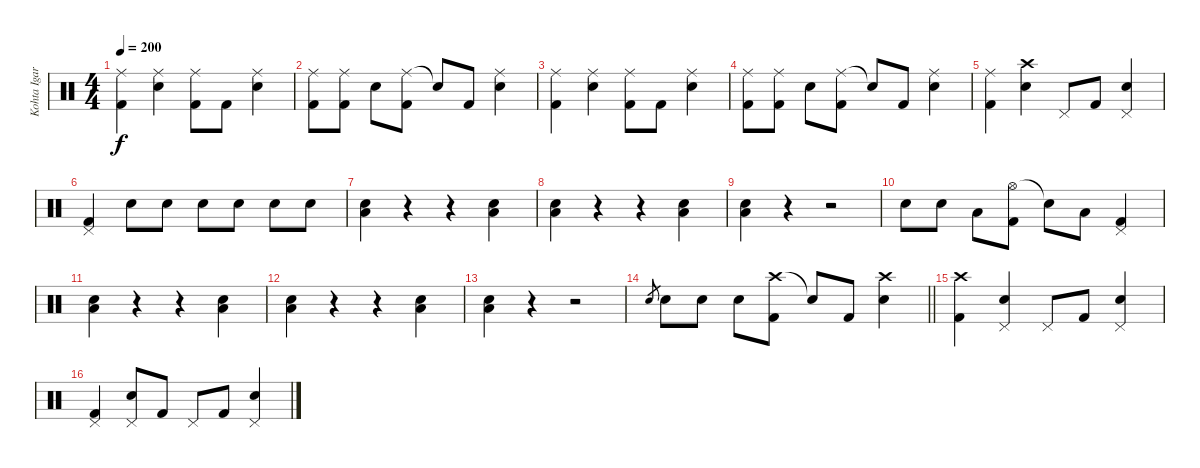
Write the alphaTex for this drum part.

\track ("Kohta Igarashi" "Kohta Igar") {instrument percussion}
\staff {score}
\articulation defaults
\ts (4 4)
\tempo 200
\clef neutral
\ks c
("Ride (middle)" "Kick (hit) 2").4{dy f} ("Ride (middle)" "Electric Snare (hit)").4 ("Ride (middle)" "Kick (hit) 2").8 "Kick (hit) 2".8 ("Ride (middle)" "Electric Snare (hit)").4 |
("Ride (middle)" "Kick (hit) 2").8 ("Ride (middle)" "Kick (hit) 2").8 "Electric Snare (hit)".8 ("Ride (middle)" "Kick (hit) 2").8 "Snare (hit)"{t}.8 "Kick (hit) 2".8 ("Ride (middle)" "Electric Snare (hit)").4 |
("Ride (middle)" "Kick (hit) 2").4 ("Ride (middle)" "Electric Snare (hit)").4 ("Ride (middle)" "Kick (hit) 2").8 "Kick (hit) 2".8 ("Ride (middle)" "Electric Snare (hit)").4 |
("Ride (middle)" "Kick (hit) 2").8 ("Ride (middle)" "Kick (hit) 2").8 "Electric Snare (hit)".8 ("Ride (middle)" "Kick (hit) 2").8 "Snare (hit)"{t}.8 "Kick (hit) 2".8 ("Ride (middle)" "Electric Snare (hit)").4 |
("Ride (middle)" "Kick (hit) 2").4 ("Crash high (hit)" "Electric Snare (hit)").4 "Pedal Hi-Hat (hit)".8 "Kick (hit) 2".8 ("Pedal Hi-Hat (hit)" "Electric Snare (hit)").4 |
("Pedal Hi-Hat (hit)" "Kick (hit) 2").4 "Electric Snare (hit)".8 "Electric Snare (hit)".8 "Electric Snare (hit)".8 "Electric Snare (hit)".8 "Electric Snare (hit)".8 "Electric Snare (hit)".8 |
("Electric Snare (hit)" "Low Floor Tom (hit)").4 r.4 r.4 ("Electric Snare (hit)" "Low Floor Tom (hit)").4 |
("Electric Snare (hit)" "Low Floor Tom (hit)").4 r.4 r.4 ("Electric Snare (hit)" "Low Floor Tom (hit)").4 |
("Electric Snare (hit)" "Low Floor Tom (hit)").4 r.4 r.2 |
"Electric Snare (hit)".8 "Electric Snare (hit)".8 "Low Tom (hit)".8 ("Hi-Hat (open)" "Kick (hit) 2").8 "Snare (hit)"{t}.8 "Low Tom (hit)".8 ("Pedal Hi-Hat (hit)" "Kick (hit) 2").4 |
("Electric Snare (hit)" "Low Floor Tom (hit)").4 r.4 r.4 ("Electric Snare (hit)" "Low Floor Tom (hit)").4 |
("Electric Snare (hit)" "Low Floor Tom (hit)").4 r.4 r.4 ("Electric Snare (hit)" "Low Floor Tom (hit)").4 |
("Electric Snare (hit)" "Low Floor Tom (hit)").4 r.4 r.2 |
\barLineRight lightlight "Electric Snare (hit)".8{gr} "Electric Snare (hit)".8 "Electric Snare (hit)".8 "Electric Snare (hit)".8
("Crash high (hit)" "Kick (hit) 2").8 "Snare (hit)"{t}.8 "Kick (hit) 2".8 ("Crash high (hit)" "Electric Snare (hit)").4 |
("Crash high (hit)" "Kick (hit) 2").4 ("Pedal Hi-Hat (hit)" "Electric Snare (hit)").4 "Pedal Hi-Hat (hit)".8 "Kick (hit) 2".8 ("Pedal Hi-Hat (hit)" "Electric Snare (hit)").4 |
("Pedal Hi-Hat (hit)" "Kick (hit) 2").4 ("Pedal Hi-Hat (hit)" "Electric Snare (hit)").8 "Kick (hit) 2".8 "Pedal Hi-Hat (hit)".8 "Kick (hit) 2".8 ("Pedal Hi-Hat (hit)" "Electric Snare (hit)").4
